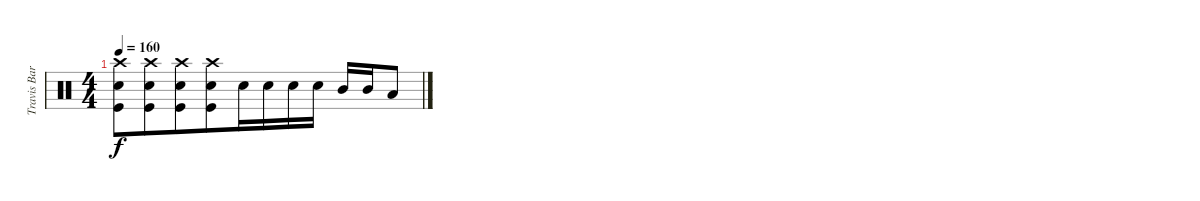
\track ("Travis Barker Drums" "Travis Bar") {instrument percussion}
\staff {score}
\articulation defaults
\ts (4 4)
\tempo 160
\clef neutral
\ks c
("Crash high (hit)" "Snare (hit) 2" "Kick (hit)").8{dy f} ("Crash high (hit)" "Snare (hit) 2" "Kick (hit)").8{beam merge} ("Crash high (hit)" "Snare (hit) 2" "Kick (hit)").8 ("Crash high (hit)" "Snare (hit) 2" "Kick (hit)").8{beam merge} "Snare (hit) 2".16 "Snare (hit) 2".16 "Snare (hit) 2".16 "Snare (hit) 2".16 "Mid Tom (hit)".16 "Mid Tom (hit)".16{beam merge} "Low Tom (hit)".8
